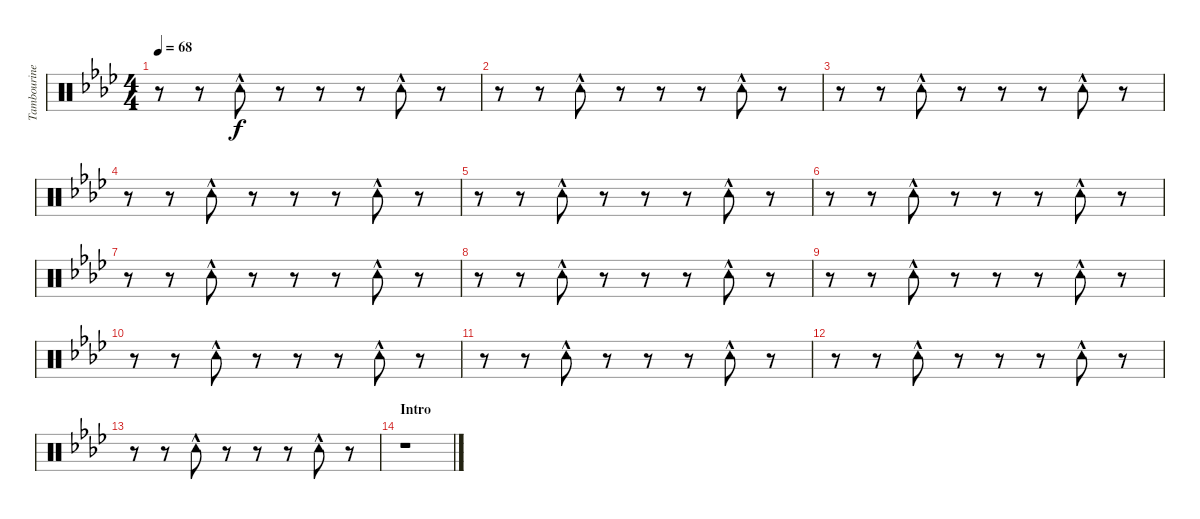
\track ("Tambourine" "Tambourine") {instrument percussion}
\staff {score}
\articulation defaults
\ts (4 4)
\tempo 68
\clef neutral
\ks ab
r.8{dy f} r.8 "Tambourine (hit)"{hac}.8 r.8 r.8 r.8 "Tambourine (hit)"{hac}.8 r.8 |
r.8 r.8 "Tambourine (hit)"{hac}.8 r.8 r.8 r.8 "Tambourine (hit)"{hac}.8 r.8 |
r.8 r.8 "Tambourine (hit)"{hac}.8 r.8 r.8 r.8 "Tambourine (hit)"{hac}.8 r.8 |
r.8 r.8 "Tambourine (hit)"{hac}.8 r.8 r.8 r.8 "Tambourine (hit)"{hac}.8 r.8 |
r.8 r.8 "Tambourine (hit)"{hac}.8 r.8 r.8 r.8 "Tambourine (hit)"{hac}.8 r.8 |
r.8 r.8 "Tambourine (hit)"{hac}.8 r.8 r.8 r.8 "Tambourine (hit)"{hac}.8 r.8 |
r.8 r.8 "Tambourine (hit)"{hac}.8 r.8 r.8 r.8 "Tambourine (hit)"{hac}.8 r.8 |
r.8 r.8 "Tambourine (hit)"{hac}.8 r.8 r.8 r.8 "Tambourine (hit)"{hac}.8 r.8 |
r.8 r.8 "Tambourine (hit)"{hac}.8 r.8 r.8 r.8 "Tambourine (hit)"{hac}.8 r.8 |
r.8 r.8 "Tambourine (hit)"{hac}.8 r.8 r.8 r.8 "Tambourine (hit)"{hac}.8 r.8 |
r.8 r.8 "Tambourine (hit)"{hac}.8 r.8 r.8 r.8 "Tambourine (hit)"{hac}.8 r.8 |
r.8 r.8 "Tambourine (hit)"{hac}.8 r.8 r.8 r.8 "Tambourine (hit)"{hac}.8 r.8 |
r.8 r.8 "Tambourine (hit)"{hac}.8 r.8 r.8 r.8 "Tambourine (hit)"{hac}.8 r.8 |
\section ("" "Intro")
r.1
